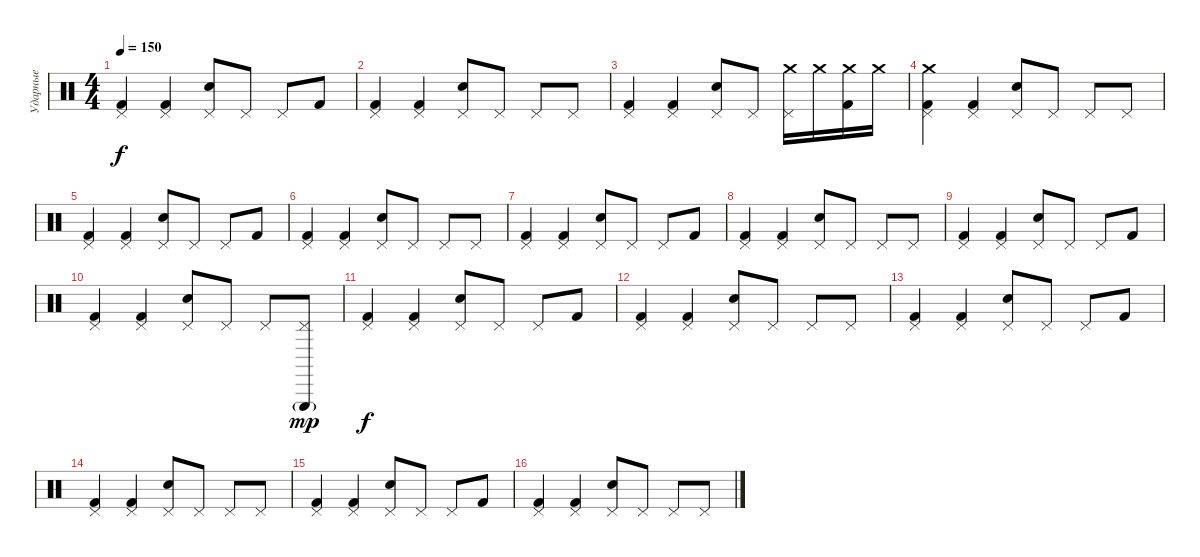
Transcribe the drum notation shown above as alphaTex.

\track ("Ударные" "Ударные") {instrument percussion}
\staff {score}
\articulation defaults
\ts (4 4)
\tempo 150
\clef neutral
\ks c
("Pedal Hi-Hat (hit)" "Kick (hit) 2").4{dy f} ("Pedal Hi-Hat (hit)" "Kick (hit) 2").4 ("Pedal Hi-Hat (hit)" "Snare (hit) 2").8 "Pedal Hi-Hat (hit)".8 "Pedal Hi-Hat (hit)".8 "Kick (hit) 2".8 |
("Pedal Hi-Hat (hit)" "Kick (hit) 2").4 ("Pedal Hi-Hat (hit)" "Kick (hit) 2").4 ("Pedal Hi-Hat (hit)" "Snare (hit) 2").8 "Pedal Hi-Hat (hit)".8 "Pedal Hi-Hat (hit)".8 "Pedal Hi-Hat (hit)".8 |
("Pedal Hi-Hat (hit)" "Kick (hit) 2").4 ("Pedal Hi-Hat (hit)" "Kick (hit) 2").4 ("Pedal Hi-Hat (hit)" "Snare (hit) 2").8 "Pedal Hi-Hat (hit)".8 ("Crash medium (hit)" "Pedal Hi-Hat (hit)").16 "Crash medium (hit)".16 ("Crash medium (hit)" "Kick (hit) 2").16 "Crash medium (hit)".16 |
("Crash medium (hit)" "Pedal Hi-Hat (hit)" "Kick (hit) 2").4 ("Pedal Hi-Hat (hit)" "Kick (hit) 2").4 ("Pedal Hi-Hat (hit)" "Snare (hit) 2").8 "Pedal Hi-Hat (hit)".8 "Pedal Hi-Hat (hit)".8 "Pedal Hi-Hat (hit)".8 |
("Pedal Hi-Hat (hit)" "Kick (hit) 2").4{volume 13} ("Pedal Hi-Hat (hit)" "Kick (hit) 2").4 ("Pedal Hi-Hat (hit)" "Snare (hit) 2").8 "Pedal Hi-Hat (hit)".8 "Pedal Hi-Hat (hit)".8 "Kick (hit) 2".8 |
("Pedal Hi-Hat (hit)" "Kick (hit) 2").4{volume 12} ("Pedal Hi-Hat (hit)" "Kick (hit) 2").4 ("Pedal Hi-Hat (hit)" "Snare (hit) 2").8 "Pedal Hi-Hat (hit)".8 "Pedal Hi-Hat (hit)".8 "Pedal Hi-Hat (hit)".8 |
("Pedal Hi-Hat (hit)" "Kick (hit) 2").4{volume 11} ("Pedal Hi-Hat (hit)" "Kick (hit) 2").4 ("Pedal Hi-Hat (hit)" "Snare (hit) 2").8 "Pedal Hi-Hat (hit)".8 "Pedal Hi-Hat (hit)".8 "Kick (hit) 2".8 |
("Pedal Hi-Hat (hit)" "Kick (hit) 2").4{volume 10} ("Pedal Hi-Hat (hit)" "Kick (hit) 2").4 ("Pedal Hi-Hat (hit)" "Snare (hit) 2").8 "Pedal Hi-Hat (hit)".8 "Pedal Hi-Hat (hit)".8 "Pedal Hi-Hat (hit)".8 |
("Pedal Hi-Hat (hit)" "Kick (hit) 2").4{volume 9} ("Pedal Hi-Hat (hit)" "Kick (hit) 2").4 ("Pedal Hi-Hat (hit)" "Snare (hit) 2").8 "Pedal Hi-Hat (hit)".8 "Pedal Hi-Hat (hit)".8 "Kick (hit) 2".8 |
("Pedal Hi-Hat (hit)" "Kick (hit) 2").4{volume 8} ("Pedal Hi-Hat (hit)" "Kick (hit) 2").4 ("Pedal Hi-Hat (hit)" "Snare (hit) 2").8 "Pedal Hi-Hat (hit)".8 "Pedal Hi-Hat (hit)".8 ("Triangle (hit)"{g} "Pedal Hi-Hat (hit)").8{dy mp} |
("Pedal Hi-Hat (hit)" "Kick (hit) 2").4{dy f volume 7} ("Pedal Hi-Hat (hit)" "Kick (hit) 2").4 ("Pedal Hi-Hat (hit)" "Snare (hit) 2").8 "Pedal Hi-Hat (hit)".8 "Pedal Hi-Hat (hit)".8 "Kick (hit) 2".8 |
("Pedal Hi-Hat (hit)" "Kick (hit) 2").4{volume 6} ("Pedal Hi-Hat (hit)" "Kick (hit) 2").4 ("Pedal Hi-Hat (hit)" "Snare (hit) 2").8 "Pedal Hi-Hat (hit)".8 "Pedal Hi-Hat (hit)".8 "Pedal Hi-Hat (hit)".8 |
("Pedal Hi-Hat (hit)" "Kick (hit) 2").4{volume 5} ("Pedal Hi-Hat (hit)" "Kick (hit) 2").4 ("Pedal Hi-Hat (hit)" "Snare (hit) 2").8 "Pedal Hi-Hat (hit)".8 "Pedal Hi-Hat (hit)".8 "Kick (hit) 2".8 |
("Pedal Hi-Hat (hit)" "Kick (hit) 2").4{volume 4} ("Pedal Hi-Hat (hit)" "Kick (hit) 2").4 ("Pedal Hi-Hat (hit)" "Snare (hit) 2").8 "Pedal Hi-Hat (hit)".8 "Pedal Hi-Hat (hit)".8 "Pedal Hi-Hat (hit)".8 |
("Pedal Hi-Hat (hit)" "Kick (hit) 2").4{volume 3} ("Pedal Hi-Hat (hit)" "Kick (hit) 2").4 ("Pedal Hi-Hat (hit)" "Snare (hit) 2").8 "Pedal Hi-Hat (hit)".8 "Pedal Hi-Hat (hit)".8 "Kick (hit) 2".8 |
("Pedal Hi-Hat (hit)" "Kick (hit) 2").4{volume 2} ("Pedal Hi-Hat (hit)" "Kick (hit) 2").4 ("Pedal Hi-Hat (hit)" "Snare (hit) 2").8 "Pedal Hi-Hat (hit)".8 "Pedal Hi-Hat (hit)".8 "Pedal Hi-Hat (hit)".8
